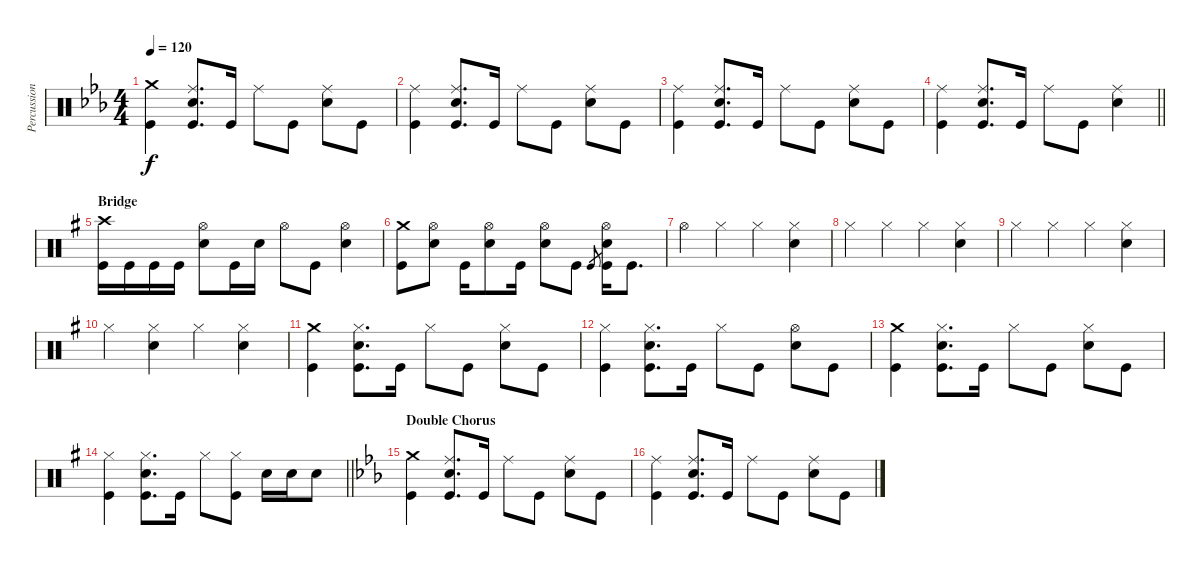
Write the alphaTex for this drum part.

\track ("Percussion" "Percussion") {instrument percussion}
\staff {score}
\articulation defaults
\ts (4 4)
\tempo 120
\clef neutral
\ks eb
("Crash medium (hit)" "Kick (hit)").4{dy f} ("Ride (middle)" "Electric Snare (hit)" "Kick (hit)").8{d} "Kick (hit)".16 "Ride (middle)".8 "Kick (hit)".8 ("Ride (middle)" "Electric Snare (hit)").8 "Kick (hit)".8 |
("Ride (middle)" "Kick (hit)").4 ("Ride (middle)" "Electric Snare (hit)" "Kick (hit)").8{d} "Kick (hit)".16 "Ride (middle)".8 "Kick (hit)".8 ("Ride (middle)" "Electric Snare (hit)").8 "Kick (hit)".8 |
("Ride (middle)" "Kick (hit)").4 ("Ride (middle)" "Electric Snare (hit)" "Kick (hit)").8{d} "Kick (hit)".16 "Ride (middle)".8 "Kick (hit)".8 ("Ride (middle)" "Electric Snare (hit)").8 "Kick (hit)".8 |
\barLineRight lightlight
("Ride (middle)" "Kick (hit)").4 ("Ride (middle)" "Electric Snare (hit)" "Kick (hit)").8{d} "Kick (hit)".16 "Ride (middle)".8 "Kick (hit)".8 ("Ride (middle)" "Electric Snare (hit)").4 |
\section ("" "Bridge")
\ks g
("Crash high (hit)" "Kick (hit)").16 "Kick (hit)".16 "Kick (hit)".16 "Kick (hit)".16 ("Hi-Hat (open)" "Electric Snare (hit)").8 "Kick (hit)".16 "Electric Snare (hit)".16 "Hi-Hat (open)".8 "Kick (hit)".8 ("Hi-Hat (open)" "Electric Snare (hit)").4 |
("Crash medium (hit)" "Kick (hit)").8 ("Hi-Hat (open)" "Electric Snare (hit)").8 "Kick (hit)".16 ("Hi-Hat (open)" "Electric Snare (hit)").8 "Kick (hit)".16 ("Hi-Hat (open)" "Electric Snare (hit)").8 "Kick (hit)".8 "Kick (hit)".8{gr} ("Hi-Hat (open)" "Electric Snare (hit)" "Kick (hit)").16 "Kick (hit)".8{d} |
"Hi-Hat (open)".4 "Hi-Hat (closed)".4 "Hi-Hat (closed)".4 ("Hi-Hat (closed)" "Electric Snare (hit)").4 |
"Hi-Hat (closed)".4 "Hi-Hat (closed)".4 "Hi-Hat (closed)".4 ("Hi-Hat (closed)" "Electric Snare (hit)").4 |
"Hi-Hat (closed)".4 "Hi-Hat (closed)".4 "Hi-Hat (closed)".4 ("Hi-Hat (closed)" "Electric Snare (hit)").4 |
"Hi-Hat (closed)".4 ("Hi-Hat (closed)" "Electric Snare (hit)").4 "Hi-Hat (closed)".4 ("Hi-Hat (closed)" "Electric Snare (hit)").4 |
("Crash medium (hit)" "Kick (hit)").4 ("Hi-Hat (closed)" "Electric Snare (hit)" "Kick (hit)").8{d} "Kick (hit)".16 "Hi-Hat (closed)".8 "Kick (hit)".8 ("Hi-Hat (closed)" "Electric Snare (hit)").8 "Kick (hit)".8 |
("Hi-Hat (closed)" "Kick (hit)").4 ("Hi-Hat (closed)" "Electric Snare (hit)" "Kick (hit)").8{d} "Kick (hit)".16 "Hi-Hat (closed)".8 "Kick (hit)".8 ("Hi-Hat (open)" "Electric Snare (hit)").8 "Kick (hit)".8 |
("Crash medium (hit)" "Kick (hit)").4 ("Hi-Hat (closed)" "Electric Snare (hit)" "Kick (hit)").8{d} "Kick (hit)".16 "Hi-Hat (closed)".8 "Kick (hit)".8 ("Hi-Hat (closed)" "Electric Snare (hit)").8 "Kick (hit)".8 |
\barLineRight lightlight
("Hi-Hat (closed)" "Kick (hit)").4 ("Hi-Hat (closed)" "Electric Snare (hit)" "Kick (hit)").8{d} "Kick (hit)".16 "Hi-Hat (closed)".8 ("Hi-Hat (closed)" "Kick (hit)").8 "Electric Snare (hit)".16 "Electric Snare (hit)".16 "Electric Snare (hit)".8 |
\section ("" "Double Chorus")
\ks eb
("Crash medium (hit)" "Kick (hit)").4 ("Ride (middle)" "Electric Snare (hit)" "Kick (hit)").8{d} "Kick (hit)".16 "Ride (middle)".8 "Kick (hit)".8 ("Ride (middle)" "Electric Snare (hit)").8 "Kick (hit)".8 |
("Ride (middle)" "Kick (hit)").4 ("Ride (middle)" "Electric Snare (hit)" "Kick (hit)").8{d} "Kick (hit)".16 "Ride (middle)".8 "Kick (hit)".8 ("Ride (middle)" "Electric Snare (hit)").8 "Kick (hit)".8
